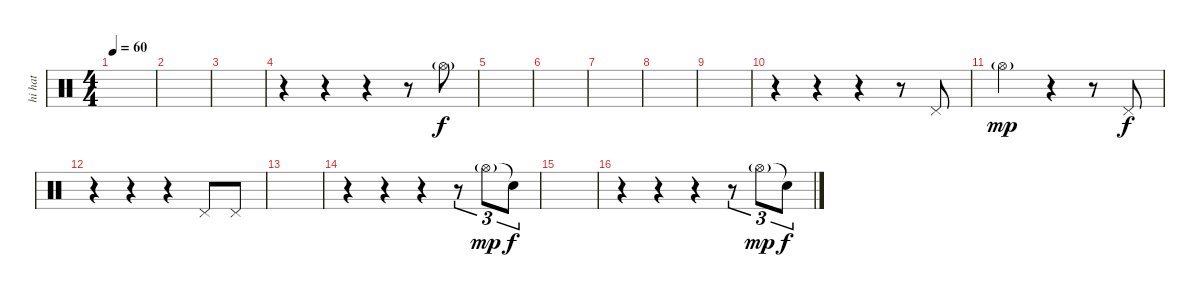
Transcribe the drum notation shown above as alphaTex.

\track ("hi hat" "hi hat") {instrument percussion}
\staff {score}
\articulation defaults
\ts (4 4)
\tempo 60
\clef neutral
\ks c
|
|
|
r.4 r.4 r.4 r.8 "Hi-Hat (open)"{g}.8 |
|
|
|
|
|
r.4 r.4 r.4 r.8 "Pedal Hi-Hat (hit)".8{dy f} |
"Hi-Hat (open)"{g}.2{dy mp} r.4 r.8 "Pedal Hi-Hat (hit)".8{dy f} |
r.4 r.4 r.4 "Pedal Hi-Hat (hit)".8 "Pedal Hi-Hat (hit)".8 |
|
r.4 r.4 r.4 r.8{tu (3 2)} "Hi-Hat (open)"{g}.8{tu (3 2) dy mp} "Snare (hit)"{t}.8{tu (3 2) dy f} |
|
r.4 r.4 r.4 r.8{tu (3 2)} "Hi-Hat (open)"{g}.8{tu (3 2) dy mp} "Snare (hit)"{t}.8{tu (3 2) dy f}
